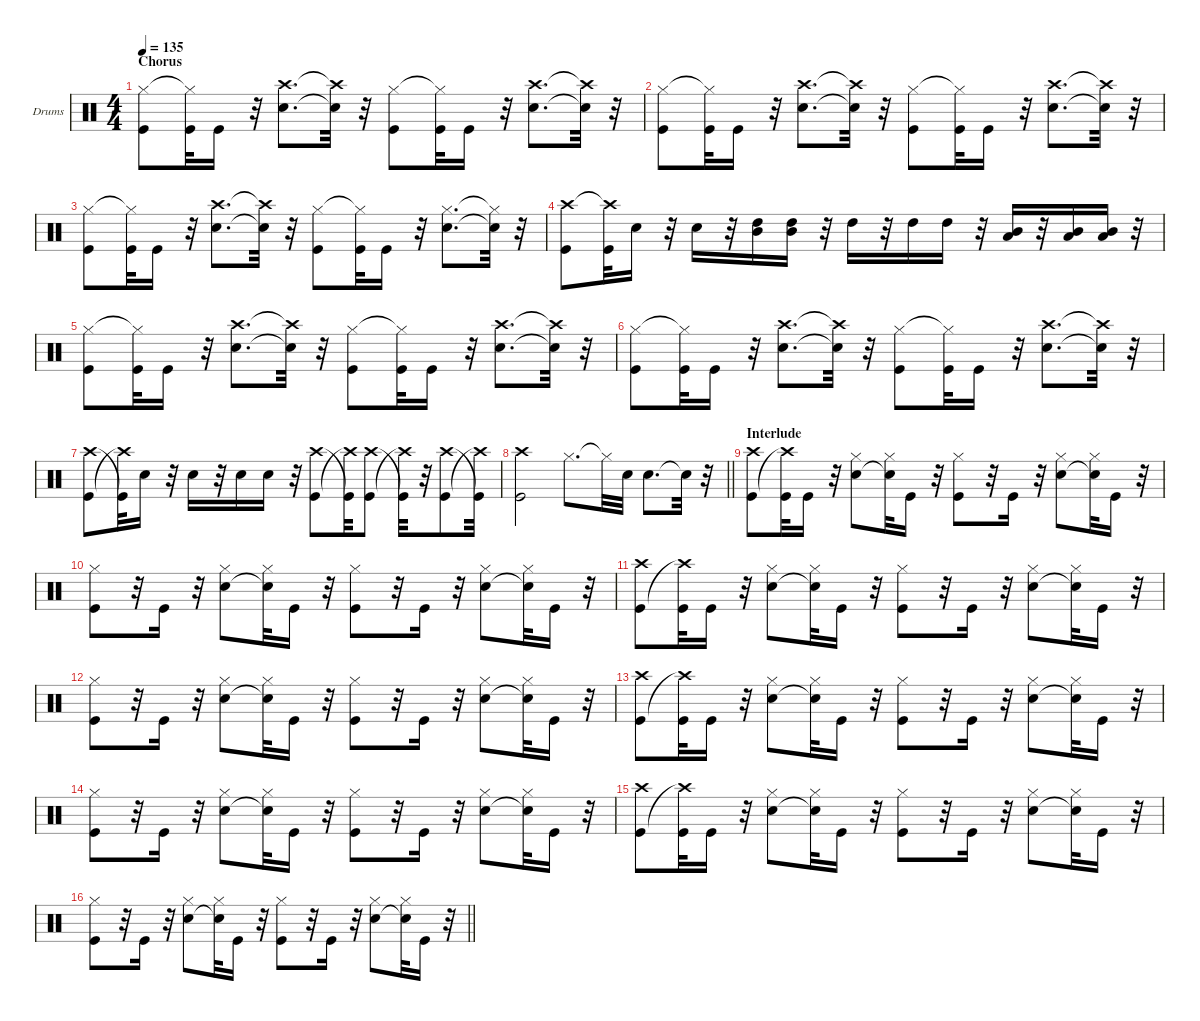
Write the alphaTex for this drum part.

\hideDynamics
\bracketExtendMode groupsimilarinstruments
\firstSystemTrackNameOrientation horizontal
\otherSystemsTrackNameOrientation horizontal
\track ("Drumkit" "Drums") {solo instrument percussion}
\staff {score}
\articulation defaults
\ts (4 4)
\section ("" "Chorus")
\tempo 135
\clef neutral
\scale
0.333333
\ks c
("Hi-Hat (closed)" "Kick (hit)").8{dy mf} ("Hi-Hat (closed)"{t} "Kick (hit)").32 "Kick (hit)".16 r.32 ("Crash high (hit)" "Snare (hit) 2").8{d} ("Crash high (hit)"{t} "Snare (hit) 2"{t}).32 r.32 ("Hi-Hat (closed)" "Kick (hit)").8 ("Hi-Hat (closed)"{t} "Kick (hit)").32 "Kick (hit)".16 r.32 ("Crash high (hit)" "Snare (hit) 2").8{d} ("Crash high (hit)"{t} "Snare (hit) 2"{t}).32 r.32 |
\scale
0.333333 ("Hi-Hat (closed)" "Kick (hit)").8 ("Hi-Hat (closed)"{t} "Kick (hit)").32 "Kick (hit)".16 r.32 ("Crash high (hit)" "Snare (hit) 2").8{d} ("Crash high (hit)"{t} "Snare (hit) 2"{t}).32 r.32 ("Hi-Hat (closed)" "Kick (hit)").8 ("Hi-Hat (closed)"{t} "Kick (hit)").32 "Kick (hit)".16 r.32 ("Crash high (hit)" "Snare (hit) 2").8{d} ("Crash high (hit)"{t} "Snare (hit) 2"{t}).32 r.32 |
\scale
0.333333 ("Hi-Hat (closed)" "Kick (hit)").8 ("Hi-Hat (closed)"{t} "Kick (hit)").32 "Kick (hit)".16 r.32 ("Crash high (hit)" "Snare (hit) 2").8{d} ("Crash high (hit)"{t} "Snare (hit) 2"{t}).32 r.32 ("Hi-Hat (closed)" "Kick (hit)").8 ("Hi-Hat (closed)"{t} "Kick (hit)").32 "Kick (hit)".16 r.32 ("Snare (hit) 2" "Hi-Hat (closed)").8{d} ("Snare (hit) 2"{t} "Hi-Hat (closed)"{t}).32 r.32 |
\scale
0.333333 ("Crash high (hit)" "Kick (hit)").8 ("Crash high (hit)"{t} "Kick (hit)").32 "Snare (hit) 2".16 r.32 "Snare (hit) 2".16 r.32 ("High Tom (hit)" "Mid Tom (hit)").16 ("Mid Tom (hit)" "High Tom (hit)").16 r.32 "High Tom (hit)".16 r.32 "High Tom (hit)".16 "High Tom (hit)".16 r.32 ("Low Tom (hit)" "Mid Tom (hit)").16 r.32 ("Low Tom (hit)" "Mid Tom (hit)").16 ("Mid Tom (hit)" "Low Tom (hit)").16 r.32 |
\scale
0.333333 ("Hi-Hat (closed)" "Kick (hit)").8 ("Hi-Hat (closed)"{t} "Kick (hit)").32 "Kick (hit)".16 r.32 ("Crash high (hit)" "Snare (hit) 2").8{d} ("Crash high (hit)"{t} "Snare (hit) 2"{t}).32 r.32 ("Hi-Hat (closed)" "Kick (hit)").8 ("Hi-Hat (closed)"{t} "Kick (hit)").32 "Kick (hit)".16 r.32 ("Crash high (hit)" "Snare (hit) 2").8{d} ("Crash high (hit)"{t} "Snare (hit) 2"{t}).32 r.32 |
\scale
0.333333 ("Hi-Hat (closed)" "Kick (hit)").8 ("Hi-Hat (closed)"{t} "Kick (hit)").32 "Kick (hit)".16 r.32 ("Crash high (hit)" "Snare (hit) 2").8{d} ("Crash high (hit)"{t} "Snare (hit) 2"{t}).32 r.32 ("Hi-Hat (closed)" "Kick (hit)").8 ("Hi-Hat (closed)"{t} "Kick (hit)").32 "Kick (hit)".16 r.32 ("Crash high (hit)" "Snare (hit) 2").8{d} ("Crash high (hit)"{t} "Snare (hit) 2"{t}).32 r.32 |
\scale
0.333333 ("Crash high (hit)" "Kick (hit)").8 ("Kick (hit)"{t} "Crash high (hit)"{t}).32 "Snare (hit) 2".16 r.32 "Snare (hit) 2".16 r.32 "Snare (hit) 2".16 "Snare (hit) 2".16 r.32 ("Crash high (hit)" "Kick (hit)").8 ("Kick (hit)"{t} "Crash high (hit)"{t}).32 ("Crash high (hit)" "Kick (hit)").8 ("Kick (hit)"{t} "Crash high (hit)"{t}).32 r.32 ("Crash high (hit)" "Kick (hit)").8 ("Kick (hit)"{t} "Crash high (hit)"{t}).32 |
\scale
0.333333
\barLineRight lightlight
("Crash high (hit)" "Kick (hit)").2 "Hi-Hat (closed)".8{d} "Hi-Hat (closed)"{t}.32 "Snare (hit) 2".32 "Snare (hit) 2".8{d} "Snare (hit) 2"{t}.32 r.32 |
\section ("" "Interlude")
\scale
0.333333 ("Crash high (hit)" "Kick (hit)").8 ("Kick (hit)" "Crash high (hit)"{t}).32 "Kick (hit)".16 r.32 ("Hi-Hat (closed)" "Snare (hit) 2").8 ("Hi-Hat (closed)" "Snare (hit) 2"{t}).32 "Kick (hit)".16 r.32 ("Kick (hit)" "Hi-Hat (closed)").8 r.32 "Kick (hit)".16 r.32 ("Hi-Hat (closed)" "Snare (hit) 2").8 ("Hi-Hat (closed)" "Snare (hit) 2"{t}).32 "Kick (hit)".16 r.32 |
\scale
0.333333 ("Kick (hit)" "Hi-Hat (closed)").8 r.32 "Kick (hit)".16 r.32 ("Hi-Hat (closed)" "Snare (hit) 2").8 ("Hi-Hat (closed)" "Snare (hit) 2"{t}).32 "Kick (hit)".16 r.32 ("Kick (hit)" "Hi-Hat (closed)").8 r.32 "Kick (hit)".16 r.32 ("Hi-Hat (closed)" "Snare (hit) 2").8 ("Hi-Hat (closed)" "Snare (hit) 2"{t}).32 "Kick (hit)".16 r.32 |
\scale
0.333333 ("Crash high (hit)" "Kick (hit)").8 ("Kick (hit)" "Crash high (hit)"{t}).32 "Kick (hit)".16 r.32 ("Hi-Hat (closed)" "Snare (hit) 2").8 ("Hi-Hat (closed)" "Snare (hit) 2"{t}).32 "Kick (hit)".16 r.32 ("Kick (hit)" "Hi-Hat (closed)").8 r.32 "Kick (hit)".16 r.32 ("Hi-Hat (closed)" "Snare (hit) 2").8 ("Hi-Hat (closed)" "Snare (hit) 2"{t}).32 "Kick (hit)".16 r.32 |
\scale
0.333333 ("Kick (hit)" "Hi-Hat (closed)").8 r.32 "Kick (hit)".16 r.32 ("Hi-Hat (closed)" "Snare (hit) 2").8 ("Hi-Hat (closed)" "Snare (hit) 2"{t}).32 "Kick (hit)".16 r.32 ("Kick (hit)" "Hi-Hat (closed)").8 r.32 "Kick (hit)".16 r.32 ("Hi-Hat (closed)" "Snare (hit) 2").8 ("Hi-Hat (closed)" "Snare (hit) 2"{t}).32 "Kick (hit)".16 r.32 |
\scale
0.333333 ("Crash high (hit)" "Kick (hit)").8 ("Kick (hit)" "Crash high (hit)"{t}).32 "Kick (hit)".16 r.32 ("Hi-Hat (closed)" "Snare (hit) 2").8 ("Hi-Hat (closed)" "Snare (hit) 2"{t}).32 "Kick (hit)".16 r.32 ("Kick (hit)" "Hi-Hat (closed)").8 r.32 "Kick (hit)".16 r.32 ("Hi-Hat (closed)" "Snare (hit) 2").8 ("Hi-Hat (closed)" "Snare (hit) 2"{t}).32 "Kick (hit)".16 r.32 |
\scale
0.333333 ("Kick (hit)" "Hi-Hat (closed)").8 r.32 "Kick (hit)".16 r.32 ("Hi-Hat (closed)" "Snare (hit) 2").8 ("Hi-Hat (closed)" "Snare (hit) 2"{t}).32 "Kick (hit)".16 r.32 ("Kick (hit)" "Hi-Hat (closed)").8 r.32 "Kick (hit)".16 r.32 ("Hi-Hat (closed)" "Snare (hit) 2").8 ("Hi-Hat (closed)" "Snare (hit) 2"{t}).32 "Kick (hit)".16 r.32 |
\scale
0.333333 ("Crash high (hit)" "Kick (hit)").8 ("Kick (hit)" "Crash high (hit)"{t}).32 "Kick (hit)".16 r.32 ("Hi-Hat (closed)" "Snare (hit) 2").8 ("Hi-Hat (closed)" "Snare (hit) 2"{t}).32 "Kick (hit)".16 r.32 ("Kick (hit)" "Hi-Hat (closed)").8 r.32 "Kick (hit)".16 r.32 ("Hi-Hat (closed)" "Snare (hit) 2").8 ("Hi-Hat (closed)" "Snare (hit) 2"{t}).32 "Kick (hit)".16 r.32 |
\scale
0.333333
\barLineRight lightlight
("Kick (hit)" "Hi-Hat (closed)").8 r.32 "Kick (hit)".16 r.32 ("Hi-Hat (closed)" "Snare (hit) 2").8 ("Hi-Hat (closed)" "Snare (hit) 2"{t}).32 "Kick (hit)".16 r.32 ("Kick (hit)" "Hi-Hat (closed)").8 r.32 "Kick (hit)".16 r.32 ("Hi-Hat (closed)" "Snare (hit) 2").8 ("Hi-Hat (closed)" "Snare (hit) 2"{t}).32 "Kick (hit)".16 r.32
